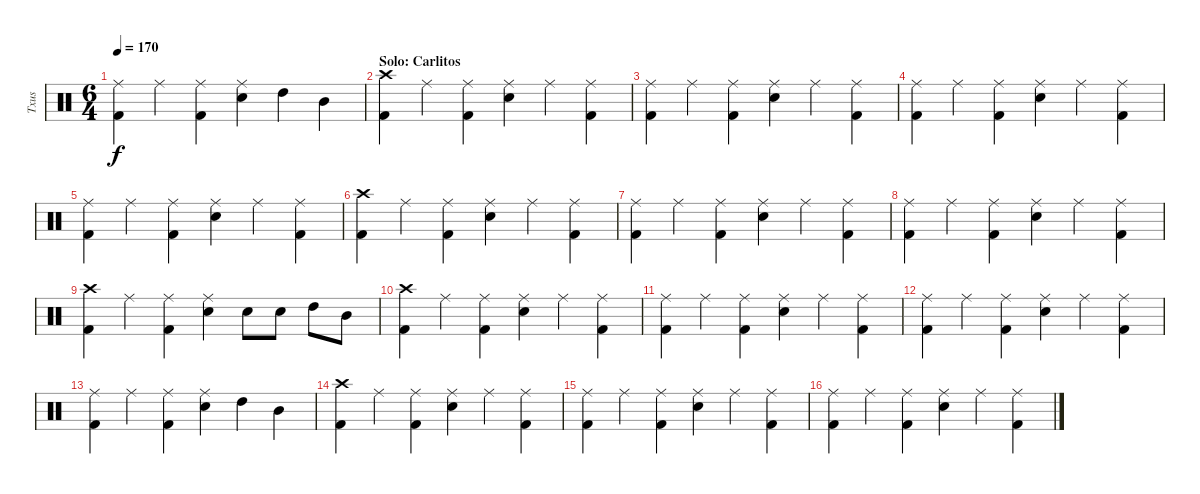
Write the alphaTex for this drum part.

\track ("Txus" "Txus") {instrument percussion}
\staff {score}
\articulation defaults
\ts (6 4)
\tempo 170
\clef neutral
\ks c
("Kick (hit) 2" "Ride (middle)").4{dy f} "Ride (middle)".4 ("Kick (hit) 2" "Ride (middle)").4 ("Electric Snare (hit)" "Ride (middle)").4 "High Tom (hit)".4 "Mid Tom (hit)".4 |
\section ("" "Solo: Carlitos")
("Kick (hit) 2" "Crash high (hit)").4 "Ride (middle)".4 ("Kick (hit) 2" "Ride (middle)").4 ("Electric Snare (hit)" "Ride (middle)").4 "Ride (middle)".4 ("Kick (hit) 2" "Ride (middle)").4 |
("Kick (hit) 2" "Ride (middle)").4 "Ride (middle)".4 ("Kick (hit) 2" "Ride (middle)").4 ("Electric Snare (hit)" "Ride (middle)").4 "Ride (middle)".4 ("Kick (hit) 2" "Ride (middle)").4 |
("Kick (hit) 2" "Ride (middle)").4 "Ride (middle)".4 ("Kick (hit) 2" "Ride (middle)").4 ("Electric Snare (hit)" "Ride (middle)").4 "Ride (middle)".4 ("Kick (hit) 2" "Ride (middle)").4 |
("Kick (hit) 2" "Ride (middle)").4 "Ride (middle)".4 ("Kick (hit) 2" "Ride (middle)").4 ("Electric Snare (hit)" "Ride (middle)").4 "Ride (middle)".4 ("Kick (hit) 2" "Ride (middle)").4 |
("Kick (hit) 2" "Crash high (hit)").4 "Ride (middle)".4 ("Kick (hit) 2" "Ride (middle)").4 ("Electric Snare (hit)" "Ride (middle)").4 "Ride (middle)".4 ("Kick (hit) 2" "Ride (middle)").4 |
("Kick (hit) 2" "Ride (middle)").4 "Ride (middle)".4 ("Kick (hit) 2" "Ride (middle)").4 ("Electric Snare (hit)" "Ride (middle)").4 "Ride (middle)".4 ("Kick (hit) 2" "Ride (middle)").4 |
("Kick (hit) 2" "Ride (middle)").4 "Ride (middle)".4 ("Kick (hit) 2" "Ride (middle)").4 ("Electric Snare (hit)" "Ride (middle)").4 "Ride (middle)".4 ("Kick (hit) 2" "Ride (middle)").4 |
("Kick (hit) 2" "Crash high (hit)").4 "Ride (middle)".4 ("Kick (hit) 2" "Ride (middle)").4 ("Electric Snare (hit)" "Ride (middle)").4 "Electric Snare (hit)".8 "Electric Snare (hit)".8 "High Tom (hit)".8 "Mid Tom (hit)".8 |
("Kick (hit) 2" "Crash high (hit)").4 "Ride (middle)".4 ("Kick (hit) 2" "Ride (middle)").4 ("Electric Snare (hit)" "Ride (middle)").4 "Ride (middle)".4 ("Kick (hit) 2" "Ride (middle)").4 |
("Kick (hit) 2" "Ride (middle)").4 "Ride (middle)".4 ("Kick (hit) 2" "Ride (middle)").4 ("Electric Snare (hit)" "Ride (middle)").4 "Ride (middle)".4 ("Kick (hit) 2" "Ride (middle)").4 |
("Kick (hit) 2" "Ride (middle)").4 "Ride (middle)".4 ("Kick (hit) 2" "Ride (middle)").4 ("Electric Snare (hit)" "Ride (middle)").4 "Ride (middle)".4 ("Kick (hit) 2" "Ride (middle)").4 |
("Kick (hit) 2" "Ride (middle)").4 "Ride (middle)".4 ("Kick (hit) 2" "Ride (middle)").4 ("Electric Snare (hit)" "Ride (middle)").4 "High Tom (hit)".4 "Mid Tom (hit)".4 |
("Kick (hit) 2" "Crash high (hit)").4 "Ride (middle)".4 ("Kick (hit) 2" "Ride (middle)").4 ("Electric Snare (hit)" "Ride (middle)").4 "Ride (middle)".4 ("Kick (hit) 2" "Ride (middle)").4 |
("Kick (hit) 2" "Ride (middle)").4 "Ride (middle)".4 ("Kick (hit) 2" "Ride (middle)").4 ("Electric Snare (hit)" "Ride (middle)").4 "Ride (middle)".4 ("Kick (hit) 2" "Ride (middle)").4 |
("Kick (hit) 2" "Ride (middle)").4 "Ride (middle)".4 ("Kick (hit) 2" "Ride (middle)").4 ("Electric Snare (hit)" "Ride (middle)").4 "Ride (middle)".4 ("Kick (hit) 2" "Ride (middle)").4
